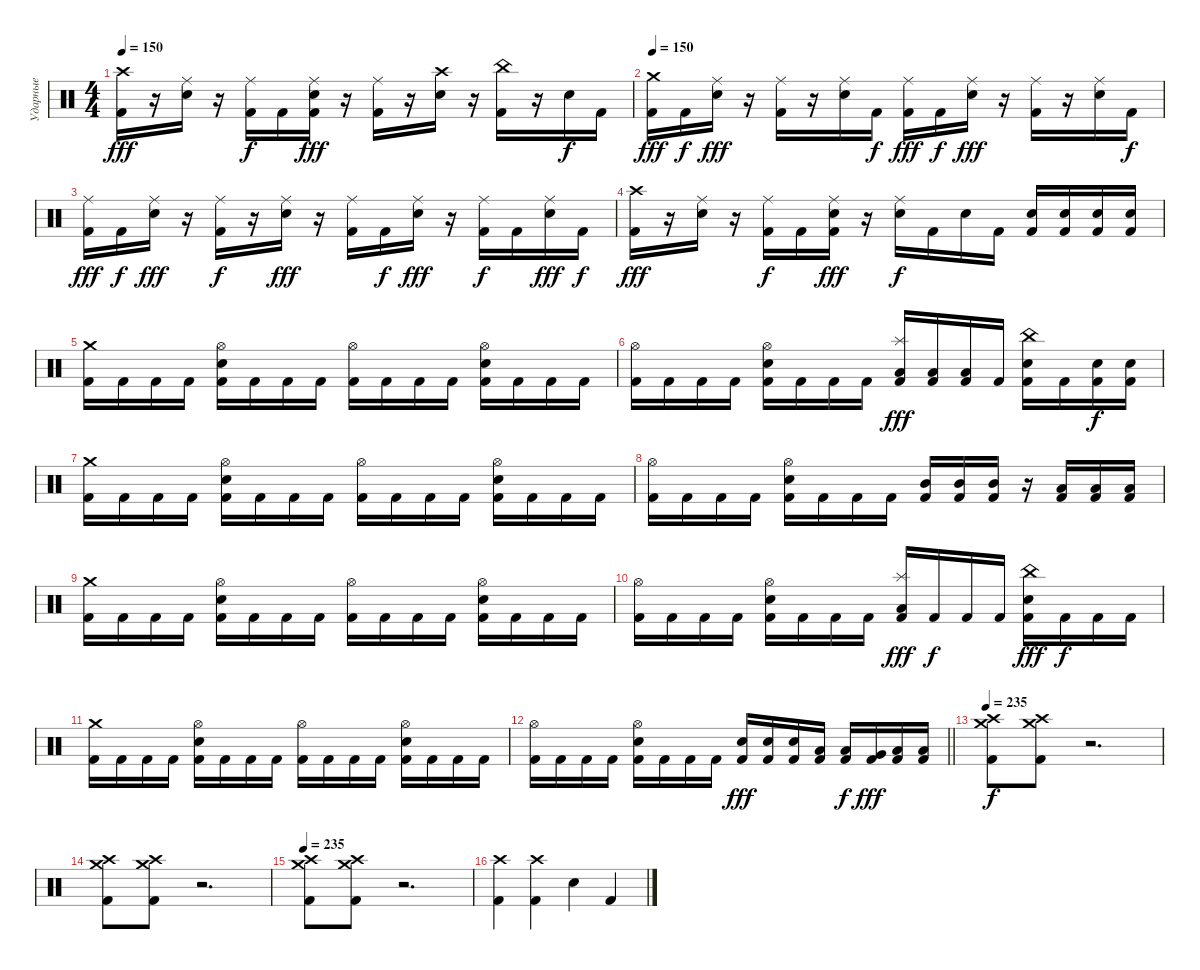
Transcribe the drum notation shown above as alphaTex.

\track ("Ударные" "Ударные") {instrument percussion}
\staff {score}
\articulation defaults
\ts (4 4)
\tempo 150
\clef neutral
\ks c
("Crash high (hit)" "Kick (hit) 2").16{dy fff} r.16 ("Ride (middle)" "Snare (hit) 2").16 r.16 ("Ride (middle)" "Kick (hit) 2").16{dy f} "Kick (hit) 2".16 ("Ride (middle)" "Snare (hit) 2" "Kick (hit) 2").16{dy fff} r.16 ("Ride (middle)" "Kick (hit) 2").16 r.16 ("Crash high (hit)" "Snare (hit) 2").16 r.16 ("China (hit)" "Kick (hit) 2").16 r.16 "Snare (hit) 2".16{dy f} "Kick (hit) 2".16 |
\tempo 150
("Crash medium (hit)" "Kick (hit) 2").16{dy fff} "Kick (hit) 2".16{dy f} ("Ride (middle)" "Snare (hit) 2").16{dy fff} r.16 ("Ride (middle)" "Kick (hit) 2").16 r.16 ("Ride (middle)" "Snare (hit) 2").16 "Kick (hit) 2".16{dy f} ("Ride (middle)" "Kick (hit) 2").16{dy fff} "Kick (hit) 2".16{dy f} ("Ride (middle)" "Snare (hit) 2").16{dy fff} r.16 ("Ride (middle)" "Kick (hit) 2").16 r.16 ("Ride (middle)" "Snare (hit) 2").16 "Kick (hit) 2".16{dy f} |
("Ride (middle)" "Kick (hit) 2").16{dy fff} "Kick (hit) 2".16{dy f} ("Ride (middle)" "Snare (hit) 2").16{dy fff} r.16 ("Ride (middle)" "Kick (hit) 2").16{dy f} r.16 ("Ride (middle)" "Snare (hit) 2").16{dy fff} r.16 ("Ride (middle)" "Kick (hit) 2").16 "Kick (hit) 2".16{dy f} ("Ride (middle)" "Snare (hit) 2").16{dy fff} r.16 ("Ride (middle)" "Kick (hit) 2").16{dy f} "Kick (hit) 2".16 ("Ride (middle)" "Snare (hit) 2").16{dy fff} "Kick (hit) 2".16{dy f} |
("Crash high (hit)" "Kick (hit) 2").16{dy fff} r.16 ("Ride (middle)" "Snare (hit) 2").16 r.16 ("Ride (middle)" "Kick (hit) 2").16{dy f} "Kick (hit) 2".16 ("Ride (middle)" "Snare (hit) 2" "Kick (hit) 2").16{dy fff} r.16 ("Ride (middle)" "Snare (hit) 2").16{dy f} "Kick (hit) 2".16 "Snare (hit) 2".16 "Kick (hit) 2".16 ("Snare (hit) 2" "Kick (hit) 2").16 ("Snare (hit) 2" "Kick (hit) 2").16 ("Snare (hit) 2" "Kick (hit) 2").16 ("Snare (hit) 2" "Kick (hit) 2").16 |
("Crash medium (hit)" "Kick (hit) 2").16 "Kick (hit) 2".16 "Kick (hit) 2".16 "Kick (hit) 2".16 ("Hi-Hat (open)" "Snare (hit) 2" "Kick (hit) 2").16 "Kick (hit) 2".16 "Kick (hit) 2".16 "Kick (hit) 2".16 ("Hi-Hat (open)" "Kick (hit) 2").16 "Kick (hit) 2".16 "Kick (hit) 2".16 "Kick (hit) 2".16 ("Hi-Hat (open)" "Snare (hit) 2" "Kick (hit) 2").16 "Kick (hit) 2".16 "Kick (hit) 2".16 "Kick (hit) 2".16 |
("Hi-Hat (open)" "Kick (hit) 2").16 "Kick (hit) 2".16 "Kick (hit) 2".16 "Kick (hit) 2".16 ("Hi-Hat (open)" "Snare (hit) 2" "Kick (hit) 2").16 "Kick (hit) 2".16 "Kick (hit) 2".16 "Kick (hit) 2".16 ("Splash (hit)" "Low Tom (hit)" "Kick (hit) 2").16{dy fff} ("Low Tom (hit)" "Kick (hit) 2").16 ("Low Tom (hit)" "Kick (hit) 2").16 "Kick (hit) 2".16 ("China (hit)" "Snare (hit) 2" "Kick (hit) 2").16 "Kick (hit) 2".16 ("Snare (hit) 2" "Kick (hit) 2").16{dy f} ("Snare (hit) 2" "Kick (hit) 2").16 |
("Crash medium (hit)" "Kick (hit) 2").16 "Kick (hit) 2".16 "Kick (hit) 2".16 "Kick (hit) 2".16 ("Hi-Hat (open)" "Snare (hit) 2" "Kick (hit) 2").16 "Kick (hit) 2".16 "Kick (hit) 2".16 "Kick (hit) 2".16 ("Hi-Hat (open)" "Kick (hit) 2").16 "Kick (hit) 2".16 "Kick (hit) 2".16 "Kick (hit) 2".16 ("Hi-Hat (open)" "Snare (hit) 2" "Kick (hit) 2").16 "Kick (hit) 2".16 "Kick (hit) 2".16 "Kick (hit) 2".16 |
("Hi-Hat (open)" "Kick (hit) 2").16 "Kick (hit) 2".16 "Kick (hit) 2".16 "Kick (hit) 2".16 ("Hi-Hat (open)" "Snare (hit) 2" "Kick (hit) 2").16 "Kick (hit) 2".16 "Kick (hit) 2".16 "Kick (hit) 2".16 ("Mid Tom (hit)" "Kick (hit) 2").16 ("Mid Tom (hit)" "Kick (hit) 2").16 ("Mid Tom (hit)" "Kick (hit) 2").16 r.16 ("Low Tom (hit)" "Kick (hit) 2").16 ("Low Tom (hit)" "Kick (hit) 2").16 ("Low Tom (hit)" "Kick (hit) 2").16 |
("Crash medium (hit)" "Kick (hit) 2").16 "Kick (hit) 2".16 "Kick (hit) 2".16 "Kick (hit) 2".16 ("Hi-Hat (open)" "Snare (hit) 2" "Kick (hit) 2").16 "Kick (hit) 2".16 "Kick (hit) 2".16 "Kick (hit) 2".16 ("Hi-Hat (open)" "Kick (hit) 2").16 "Kick (hit) 2".16 "Kick (hit) 2".16 "Kick (hit) 2".16 ("Hi-Hat (open)" "Snare (hit) 2" "Kick (hit) 2").16 "Kick (hit) 2".16 "Kick (hit) 2".16 "Kick (hit) 2".16 |
("Hi-Hat (open)" "Kick (hit) 2").16 "Kick (hit) 2".16 "Kick (hit) 2".16 "Kick (hit) 2".16 ("Hi-Hat (open)" "Snare (hit) 2" "Kick (hit) 2").16 "Kick (hit) 2".16 "Kick (hit) 2".16 "Kick (hit) 2".16 ("Splash (hit)" "Low Tom (hit)" "Kick (hit) 2").16{dy fff} "Kick (hit) 2".16{dy f} "Kick (hit) 2".16 "Kick (hit) 2".16 ("China (hit)" "Snare (hit) 2" "Kick (hit) 2").16{dy fff} "Kick (hit) 2".16{dy f} "Kick (hit) 2".16 "Kick (hit) 2".16 |
("Crash medium (hit)" "Kick (hit) 2").16 "Kick (hit) 2".16 "Kick (hit) 2".16 "Kick (hit) 2".16 ("Hi-Hat (open)" "Snare (hit) 2" "Kick (hit) 2").16 "Kick (hit) 2".16 "Kick (hit) 2".16 "Kick (hit) 2".16 ("Hi-Hat (open)" "Kick (hit) 2").16 "Kick (hit) 2".16 "Kick (hit) 2".16 "Kick (hit) 2".16 ("Hi-Hat (open)" "Snare (hit) 2" "Kick (hit) 2").16 "Kick (hit) 2".16 "Kick (hit) 2".16 "Kick (hit) 2".16 |
\barLineRight lightlight
("Hi-Hat (open)" "Kick (hit) 2").16 "Kick (hit) 2".16 "Kick (hit) 2".16 "Kick (hit) 2".16 ("Hi-Hat (open)" "Snare (hit) 2" "Kick (hit) 2").16 "Kick (hit) 2".16 "Kick (hit) 2".16 "Kick (hit) 2".16 ("Snare (hit) 2" "Kick (hit) 2").16{dy fff} ("Snare (hit) 2" "Kick (hit) 2").16 ("Snare (hit) 2" "Kick (hit) 2").16 ("Low Tom (hit)" "Kick (hit) 2").16 ("Low Tom (hit)" "Kick (hit) 2").16{dy f} ("Very Low Tom (hit)" "Kick (hit) 2").16{dy fff} ("Low Floor Tom (hit)" "Kick (hit) 2").16 ("Low Floor Tom (hit)" "Kick (hit) 2").16 |
\tempo 235
("Crash medium (hit)" "Crash high (hit)" "Kick (hit) 2").8{dy f} ("Crash medium (hit)" "Crash high (hit)" "Kick (hit) 2").8 r.2{d} |
("Crash medium (hit)" "Crash high (hit)" "Kick (hit) 2").8 ("Crash medium (hit)" "Crash high (hit)" "Kick (hit) 2").8 r.2{d} |
\tempo 235
("Crash medium (hit)" "Crash high (hit)" "Kick (hit) 2").8 ("Crash medium (hit)" "Crash high (hit)" "Kick (hit) 2").8 r.2{d} |
("Crash high (hit)" "Kick (hit) 2").4 ("Crash high (hit)" "Kick (hit) 2").4 "Snare (hit) 2".4 "Kick (hit) 2".4
